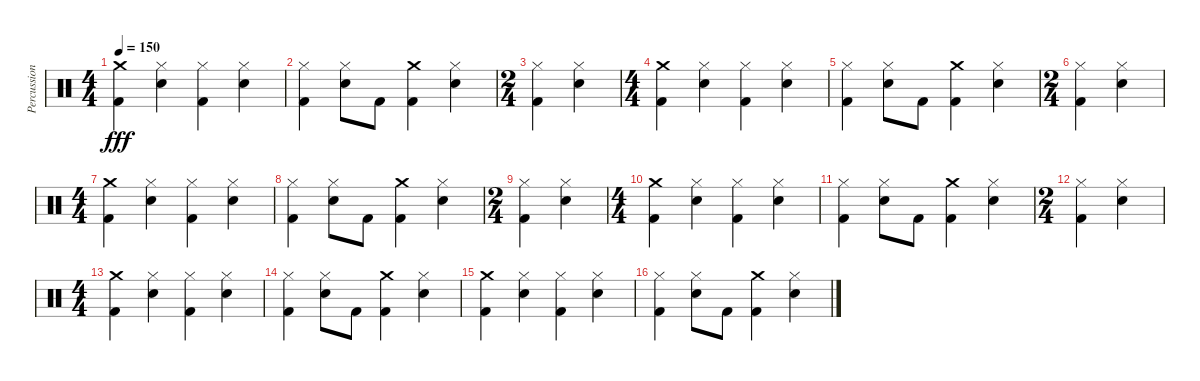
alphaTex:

\track ("Percussion" "Percussion") {instrument percussion}
\staff {score}
\articulation defaults
\ts (4 4)
\tempo 150
\clef neutral
\ks c
("Kick (hit) 2" "Crash medium (hit)").4{dy fff} ("Hi-Hat (closed)" "Snare (hit) 2").4 ("Hi-Hat (closed)" "Kick (hit) 2").4 ("Snare (hit) 2" "Hi-Hat (closed)").4 |
("Hi-Hat (closed)" "Kick (hit) 2").4 ("Snare (hit) 2" "Hi-Hat (closed)").8 "Kick (hit) 2".8 ("Kick (hit) 2" "Crash medium (hit)").4 ("Hi-Hat (closed)" "Snare (hit) 2").4 |
\ts (2 4)
("Hi-Hat (closed)" "Kick (hit) 2").4 ("Snare (hit) 2" "Hi-Hat (closed)").4 |
\ts (4 4)
("Kick (hit) 2" "Crash medium (hit)").4 ("Hi-Hat (closed)" "Snare (hit) 2").4 ("Hi-Hat (closed)" "Kick (hit) 2").4 ("Snare (hit) 2" "Hi-Hat (closed)").4 |
("Hi-Hat (closed)" "Kick (hit) 2").4 ("Snare (hit) 2" "Hi-Hat (closed)").8 "Kick (hit) 2".8 ("Kick (hit) 2" "Crash medium (hit)").4 ("Hi-Hat (closed)" "Snare (hit) 2").4 |
\ts (2 4)
("Hi-Hat (closed)" "Kick (hit) 2").4 ("Snare (hit) 2" "Hi-Hat (closed)").4 |
\ts (4 4)
("Kick (hit) 2" "Crash medium (hit)").4 ("Hi-Hat (closed)" "Snare (hit) 2").4 ("Hi-Hat (closed)" "Kick (hit) 2").4 ("Snare (hit) 2" "Hi-Hat (closed)").4 |
("Hi-Hat (closed)" "Kick (hit) 2").4 ("Snare (hit) 2" "Hi-Hat (closed)").8 "Kick (hit) 2".8 ("Kick (hit) 2" "Crash medium (hit)").4 ("Hi-Hat (closed)" "Snare (hit) 2").4 |
\ts (2 4)
("Hi-Hat (closed)" "Kick (hit) 2").4 ("Snare (hit) 2" "Hi-Hat (closed)").4 |
\ts (4 4)
("Kick (hit) 2" "Crash medium (hit)").4 ("Hi-Hat (closed)" "Snare (hit) 2").4 ("Hi-Hat (closed)" "Kick (hit) 2").4 ("Snare (hit) 2" "Hi-Hat (closed)").4 |
("Hi-Hat (closed)" "Kick (hit) 2").4 ("Snare (hit) 2" "Hi-Hat (closed)").8 "Kick (hit) 2".8 ("Kick (hit) 2" "Crash medium (hit)").4 ("Hi-Hat (closed)" "Snare (hit) 2").4 |
\ts (2 4)
("Hi-Hat (closed)" "Kick (hit) 2").4 ("Snare (hit) 2" "Hi-Hat (closed)").4 |
\ts (4 4)
("Kick (hit) 2" "Crash medium (hit)").4 ("Hi-Hat (closed)" "Snare (hit) 2").4 ("Hi-Hat (closed)" "Kick (hit) 2").4 ("Snare (hit) 2" "Hi-Hat (closed)").4 |
("Hi-Hat (closed)" "Kick (hit) 2").4 ("Snare (hit) 2" "Hi-Hat (closed)").8 "Kick (hit) 2".8 ("Kick (hit) 2" "Crash medium (hit)").4 ("Hi-Hat (closed)" "Snare (hit) 2").4 |
("Kick (hit) 2" "Crash medium (hit)").4 ("Hi-Hat (closed)" "Snare (hit) 2").4 ("Hi-Hat (closed)" "Kick (hit) 2").4 ("Snare (hit) 2" "Hi-Hat (closed)").4 |
("Hi-Hat (closed)" "Kick (hit) 2").4 ("Snare (hit) 2" "Hi-Hat (closed)").8 "Kick (hit) 2".8 ("Kick (hit) 2" "Crash medium (hit)").4 ("Hi-Hat (closed)" "Snare (hit) 2").4
